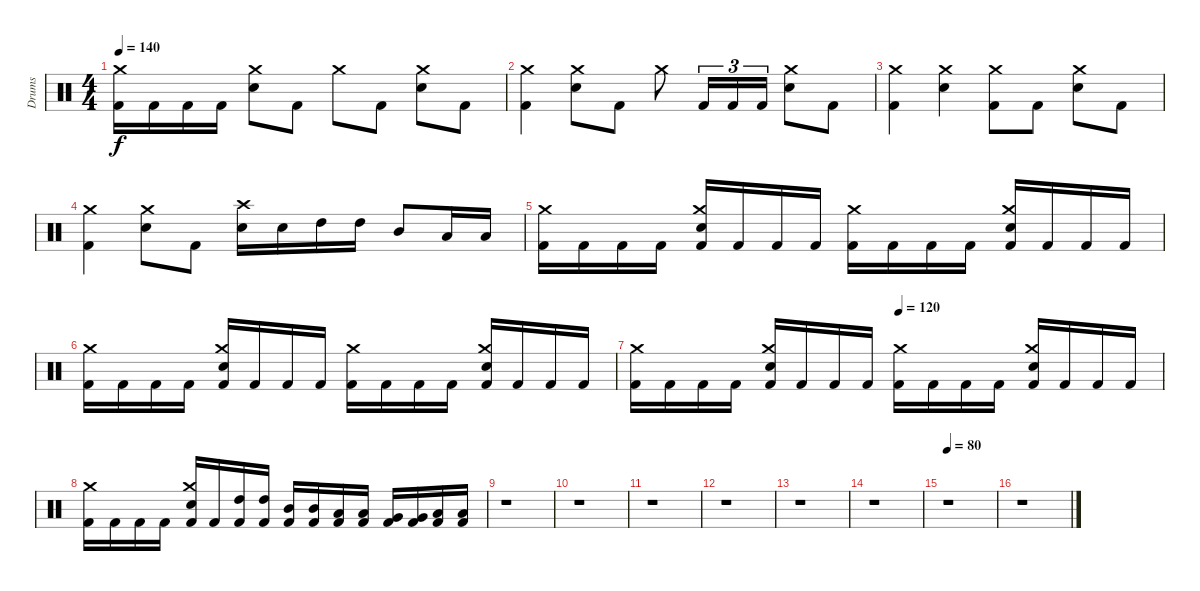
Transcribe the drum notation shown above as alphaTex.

\track ("Drums" "Drums") {instrument percussion}
\staff {score}
\articulation defaults
\ts (4 4)
\tempo 140
\clef neutral
\ks c
("Kick (hit) 2" "Crash medium (hit)").16{dy f volume 8} "Kick (hit) 2".16 "Kick (hit) 2".16 "Kick (hit) 2".16 ("Electric Snare (hit)" "Crash medium (hit)").8 "Kick (hit) 2".8 "Crash medium (hit)".8 "Kick (hit) 2".8 ("Electric Snare (hit)" "Crash medium (hit)").8 "Kick (hit) 2".8 |
("Kick (hit) 2" "Crash medium (hit)").4 ("Electric Snare (hit)" "Crash medium (hit)").8 "Kick (hit) 2".8 "Crash medium (hit)".8 "Kick (hit) 2".16{tu (3 2)} "Kick (hit) 2".16{tu (3 2)} "Kick (hit) 2".16{tu (3 2)} ("Electric Snare (hit)" "Crash medium (hit)").8 "Kick (hit) 2".8 |
("Kick (hit) 2" "Crash medium (hit)").4{volume 6} ("Electric Snare (hit)" "Crash medium (hit)").4 ("Kick (hit) 2" "Crash medium (hit)").8 "Kick (hit) 2".8 ("Electric Snare (hit)" "Crash medium (hit)").8 "Kick (hit) 2".8 |
("Kick (hit) 2" "Crash medium (hit)").4 ("Electric Snare (hit)" "Crash medium (hit)").8 "Kick (hit) 2".8 ("Electric Snare (hit)" "Crash high (hit)").16 "Electric Snare (hit)".16 "High Tom (hit)".16 "High Tom (hit)".16 "Mid Tom (hit)".8 "Low Tom (hit)".16 "Low Tom (hit)".16 |
("Kick (hit) 2" "Crash medium (hit)").16{volume 4} "Kick (hit) 2".16 "Kick (hit) 2".16 "Kick (hit) 2".16 ("Kick (hit) 2" "Electric Snare (hit)" "Crash medium (hit)").16 "Kick (hit) 2".16 "Kick (hit) 2".16 "Kick (hit) 2".16 ("Kick (hit) 2" "Crash medium (hit)").16 "Kick (hit) 2".16 "Kick (hit) 2".16 "Kick (hit) 2".16 ("Kick (hit) 2" "Electric Snare (hit)" "Crash medium (hit)").16 "Kick (hit) 2".16 "Kick (hit) 2".16 "Kick (hit) 2".16 |
("Kick (hit) 2" "Crash medium (hit)").16 "Kick (hit) 2".16 "Kick (hit) 2".16 "Kick (hit) 2".16 ("Kick (hit) 2" "Electric Snare (hit)" "Crash medium (hit)").16 "Kick (hit) 2".16 "Kick (hit) 2".16 "Kick (hit) 2".16 ("Kick (hit) 2" "Crash medium (hit)").16 "Kick (hit) 2".16 "Kick (hit) 2".16 "Kick (hit) 2".16 ("Kick (hit) 2" "Electric Snare (hit)" "Crash medium (hit)").16 "Kick (hit) 2".16 "Kick (hit) 2".16 "Kick (hit) 2".16 |
\tempo (120 0.5)
("Kick (hit) 2" "Crash medium (hit)").16{volume 2} "Kick (hit) 2".16 "Kick (hit) 2".16 "Kick (hit) 2".16 ("Kick (hit) 2" "Electric Snare (hit)" "Crash medium (hit)").16 "Kick (hit) 2".16 "Kick (hit) 2".16 "Kick (hit) 2".16 ("Kick (hit) 2" "Crash medium (hit)").16 "Kick (hit) 2".16 "Kick (hit) 2".16 "Kick (hit) 2".16 ("Kick (hit) 2" "Electric Snare (hit)" "Crash medium (hit)").16 "Kick (hit) 2".16 "Kick (hit) 2".16 "Kick (hit) 2".16 |
("Kick (hit) 2" "Crash medium (hit)").16 "Kick (hit) 2".16 "Kick (hit) 2".16 "Kick (hit) 2".16 ("Kick (hit) 2" "Electric Snare (hit)" "Crash medium (hit)").16 "Kick (hit) 2".16 ("Kick (hit) 2" "High Tom (hit)").16 ("Kick (hit) 2" "High Tom (hit)").16 ("Kick (hit) 2" "Mid Tom (hit)").16 ("Kick (hit) 2" "Mid Tom (hit)").16 ("Kick (hit) 2" "Low Tom (hit)").16 ("Kick (hit) 2" "Low Tom (hit)").16 ("Kick (hit) 2" "Very Low Tom (hit)").16 ("Kick (hit) 2" "Very Low Tom (hit)").16 ("Kick (hit) 2" "Low Floor Tom (hit)").16 ("Kick (hit) 2" "Low Floor Tom (hit)").16 |
r.1 |
r.1 |
r.1 |
r.1 |
r.1 |
r.1 |
\tempo 80
r.1 |
r.1
